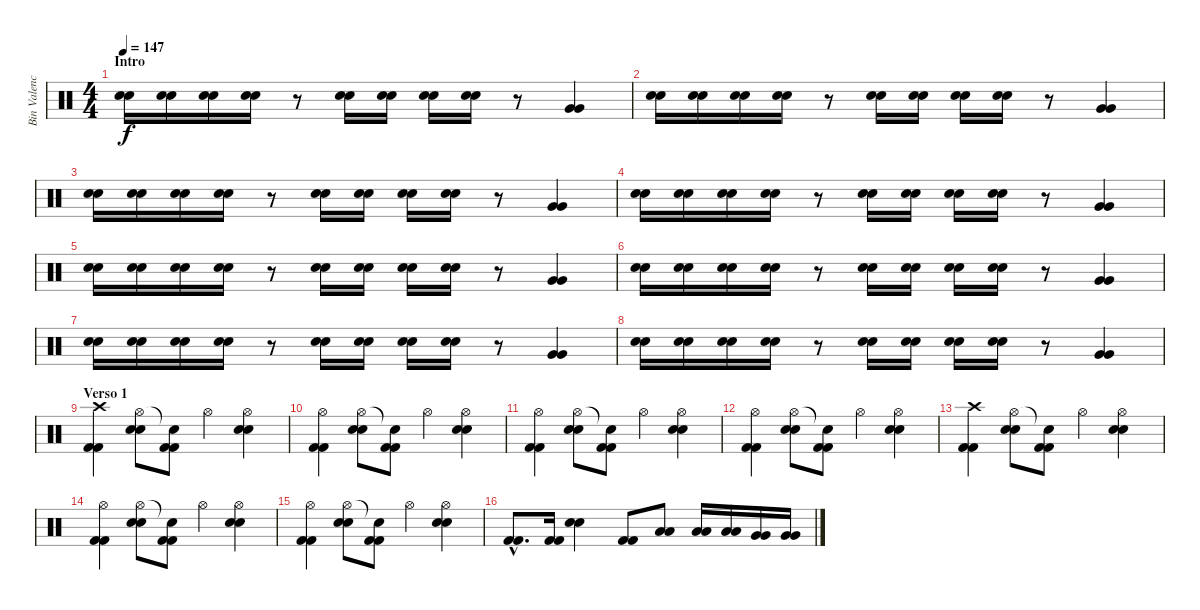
\track ("Bin Valencia (Bateria)" "Bin Valenc") {instrument percussion}
\staff {score}
\articulation defaults
\ts (4 4)
\section ("" "Intro")
\tempo 147
\clef neutral
\ks c
("Snare (hit) 2" "Snare (hit) 2").16{dy f} ("Snare (hit) 2" "Snare (hit) 2").16 ("Snare (hit) 2" "Snare (hit) 2").16 ("Snare (hit) 2" "Snare (hit) 2").16 r.8 ("Snare (hit) 2" "Snare (hit) 2").16 ("Snare (hit) 2" "Snare (hit) 2").16 ("Snare (hit) 2" "Snare (hit) 2").16 ("Snare (hit) 2" "Snare (hit) 2").16 r.8 ("Very Low Tom (hit)" "Very Low Tom (hit)").4 |
("Snare (hit) 2" "Snare (hit) 2").16 ("Snare (hit) 2" "Snare (hit) 2").16 ("Snare (hit) 2" "Snare (hit) 2").16 ("Snare (hit) 2" "Snare (hit) 2").16 r.8 ("Snare (hit) 2" "Snare (hit) 2").16 ("Snare (hit) 2" "Snare (hit) 2").16 ("Snare (hit) 2" "Snare (hit) 2").16 ("Snare (hit) 2" "Snare (hit) 2").16 r.8 ("Very Low Tom (hit)" "Very Low Tom (hit)").4 |
("Snare (hit) 2" "Snare (hit) 2").16 ("Snare (hit) 2" "Snare (hit) 2").16 ("Snare (hit) 2" "Snare (hit) 2").16 ("Snare (hit) 2" "Snare (hit) 2").16 r.8 ("Snare (hit) 2" "Snare (hit) 2").16 ("Snare (hit) 2" "Snare (hit) 2").16 ("Snare (hit) 2" "Snare (hit) 2").16 ("Snare (hit) 2" "Snare (hit) 2").16 r.8 ("Very Low Tom (hit)" "Very Low Tom (hit)").4 |
("Snare (hit) 2" "Snare (hit) 2").16 ("Snare (hit) 2" "Snare (hit) 2").16 ("Snare (hit) 2" "Snare (hit) 2").16 ("Snare (hit) 2" "Snare (hit) 2").16 r.8 ("Snare (hit) 2" "Snare (hit) 2").16 ("Snare (hit) 2" "Snare (hit) 2").16 ("Snare (hit) 2" "Snare (hit) 2").16 ("Snare (hit) 2" "Snare (hit) 2").16 r.8 ("Very Low Tom (hit)" "Very Low Tom (hit)").4 |
("Snare (hit) 2" "Snare (hit) 2").16 ("Snare (hit) 2" "Snare (hit) 2").16 ("Snare (hit) 2" "Snare (hit) 2").16 ("Snare (hit) 2" "Snare (hit) 2").16 r.8 ("Snare (hit) 2" "Snare (hit) 2").16 ("Snare (hit) 2" "Snare (hit) 2").16 ("Snare (hit) 2" "Snare (hit) 2").16 ("Snare (hit) 2" "Snare (hit) 2").16 r.8 ("Very Low Tom (hit)" "Very Low Tom (hit)").4 |
("Snare (hit) 2" "Snare (hit) 2").16 ("Snare (hit) 2" "Snare (hit) 2").16 ("Snare (hit) 2" "Snare (hit) 2").16 ("Snare (hit) 2" "Snare (hit) 2").16 r.8 ("Snare (hit) 2" "Snare (hit) 2").16 ("Snare (hit) 2" "Snare (hit) 2").16 ("Snare (hit) 2" "Snare (hit) 2").16 ("Snare (hit) 2" "Snare (hit) 2").16 r.8 ("Very Low Tom (hit)" "Very Low Tom (hit)").4 |
("Snare (hit) 2" "Snare (hit) 2").16 ("Snare (hit) 2" "Snare (hit) 2").16 ("Snare (hit) 2" "Snare (hit) 2").16 ("Snare (hit) 2" "Snare (hit) 2").16 r.8 ("Snare (hit) 2" "Snare (hit) 2").16 ("Snare (hit) 2" "Snare (hit) 2").16 ("Snare (hit) 2" "Snare (hit) 2").16 ("Snare (hit) 2" "Snare (hit) 2").16 r.8 ("Very Low Tom (hit)" "Very Low Tom (hit)").4 |
("Snare (hit) 2" "Snare (hit) 2").16 ("Snare (hit) 2" "Snare (hit) 2").16 ("Snare (hit) 2" "Snare (hit) 2").16 ("Snare (hit) 2" "Snare (hit) 2").16 r.8 ("Snare (hit) 2" "Snare (hit) 2").16 ("Snare (hit) 2" "Snare (hit) 2").16 ("Snare (hit) 2" "Snare (hit) 2").16 ("Snare (hit) 2" "Snare (hit) 2").16 r.8 ("Very Low Tom (hit)" "Very Low Tom (hit)").4 |
\section ("" "Verso 1")
("Crash high (hit)" "Kick (hit) 2" "Kick (hit) 2").4 ("Hi-Hat (open)" "Snare (hit) 2" "Snare (hit) 2").8 ("Snare (hit)"{t} "Kick (hit) 2" "Kick (hit) 2").8 "Hi-Hat (open)".4 ("Hi-Hat (open)" "Snare (hit) 2" "Snare (hit) 2").4 |
("Hi-Hat (open)" "Kick (hit) 2" "Kick (hit) 2").4 ("Hi-Hat (open)" "Snare (hit) 2" "Snare (hit) 2").8 ("Snare (hit)"{t} "Kick (hit) 2" "Kick (hit) 2").8 "Hi-Hat (open)".4 ("Hi-Hat (open)" "Snare (hit) 2" "Snare (hit) 2").4 |
("Hi-Hat (open)" "Kick (hit) 2" "Kick (hit) 2").4 ("Hi-Hat (open)" "Snare (hit) 2" "Snare (hit) 2").8 ("Snare (hit)"{t} "Kick (hit) 2" "Kick (hit) 2").8 "Hi-Hat (open)".4 ("Hi-Hat (open)" "Snare (hit) 2" "Snare (hit) 2").4 |
("Hi-Hat (open)" "Kick (hit) 2" "Kick (hit) 2").4 ("Hi-Hat (open)" "Snare (hit) 2" "Snare (hit) 2").8 ("Snare (hit)"{t} "Kick (hit) 2" "Kick (hit) 2").8 "Hi-Hat (open)".4 ("Hi-Hat (open)" "Snare (hit) 2" "Snare (hit) 2").4 |
("Crash high (hit)" "Kick (hit) 2" "Kick (hit) 2").4 ("Hi-Hat (open)" "Snare (hit) 2" "Snare (hit) 2").8 ("Snare (hit)"{t} "Kick (hit) 2" "Kick (hit) 2").8 "Hi-Hat (open)".4 ("Hi-Hat (open)" "Snare (hit) 2" "Snare (hit) 2").4 |
("Hi-Hat (open)" "Kick (hit) 2" "Kick (hit) 2").4 ("Hi-Hat (open)" "Snare (hit) 2" "Snare (hit) 2").8 ("Snare (hit)"{t} "Kick (hit) 2" "Kick (hit) 2").8 "Hi-Hat (open)".4 ("Hi-Hat (open)" "Snare (hit) 2" "Snare (hit) 2").4 |
("Hi-Hat (open)" "Kick (hit) 2" "Kick (hit) 2").4 ("Hi-Hat (open)" "Snare (hit) 2" "Snare (hit) 2").8 ("Snare (hit)"{t} "Kick (hit) 2" "Kick (hit) 2").8 "Hi-Hat (open)".4 ("Hi-Hat (open)" "Snare (hit) 2" "Snare (hit) 2").4 |
("Kick (hit) 2"{hac} "Kick (hit) 2"{hac}).8{d} ("Kick (hit) 2" "Kick (hit) 2").16 ("Snare (hit) 2" "Snare (hit) 2").4 ("Kick (hit) 2" "Kick (hit) 2").8 ("Low Tom (hit)" "Low Tom (hit)").8 ("Low Tom (hit)" "Low Tom (hit)").16 ("Low Tom (hit)" "Low Tom (hit)").16 ("Very Low Tom (hit)" "Very Low Tom (hit)").16 ("Very Low Tom (hit)" "Very Low Tom (hit)").16
